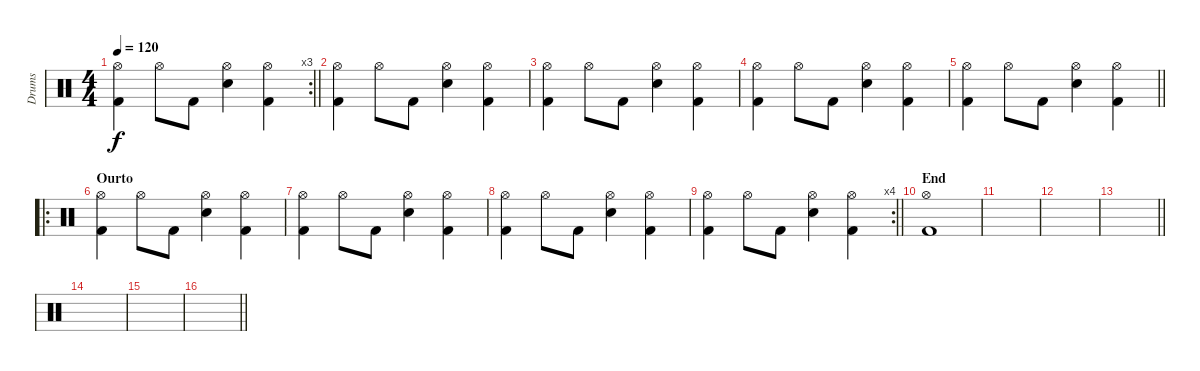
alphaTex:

\track ("Drums" "Drums") {instrument percussion}
\staff {score}
\articulation defaults
\rc 3
\ts (4 4)
\tempo 120
\clef neutral
\barLineRight lightlight
\ks c
("Hi-Hat (open)" "Kick (hit) 2").4{dy f} "Hi-Hat (open)".8 "Kick (hit) 2".8 ("Hi-Hat (open)" "Electric Snare (hit)").4 ("Hi-Hat (open)" "Kick (hit) 2").4 |
("Hi-Hat (open)" "Kick (hit) 2").4 "Hi-Hat (open)".8 "Kick (hit) 2".8 ("Hi-Hat (open)" "Electric Snare (hit)").4 ("Hi-Hat (open)" "Kick (hit) 2").4 |
("Hi-Hat (open)" "Kick (hit) 2").4 "Hi-Hat (open)".8 "Kick (hit) 2".8 ("Hi-Hat (open)" "Electric Snare (hit)").4 ("Hi-Hat (open)" "Kick (hit) 2").4 |
("Hi-Hat (open)" "Kick (hit) 2").4 "Hi-Hat (open)".8 "Kick (hit) 2".8 ("Hi-Hat (open)" "Electric Snare (hit)").4 ("Hi-Hat (open)" "Kick (hit) 2").4 |
\barLineRight lightlight
("Hi-Hat (open)" "Kick (hit) 2").4 "Hi-Hat (open)".8 "Kick (hit) 2".8 ("Hi-Hat (open)" "Electric Snare (hit)").4 ("Hi-Hat (open)" "Kick (hit) 2").4 |
\ro
\section ("" "Ourto")
("Hi-Hat (open)" "Kick (hit) 2").4 "Hi-Hat (open)".8 "Kick (hit) 2".8 ("Hi-Hat (open)" "Electric Snare (hit)").4 ("Hi-Hat (open)" "Kick (hit) 2").4 |
("Hi-Hat (open)" "Kick (hit) 2").4 "Hi-Hat (open)".8 "Kick (hit) 2".8 ("Hi-Hat (open)" "Electric Snare (hit)").4 ("Hi-Hat (open)" "Kick (hit) 2").4 |
("Hi-Hat (open)" "Kick (hit) 2").4 "Hi-Hat (open)".8 "Kick (hit) 2".8 ("Hi-Hat (open)" "Electric Snare (hit)").4 ("Hi-Hat (open)" "Kick (hit) 2").4 |
\rc 4
\barLineRight lightlight
("Hi-Hat (open)" "Kick (hit) 2").4 "Hi-Hat (open)".8 "Kick (hit) 2".8 ("Hi-Hat (open)" "Electric Snare (hit)").4 ("Hi-Hat (open)" "Kick (hit) 2").4 |
\section ("" "End")
("Hi-Hat (open)" "Kick (hit) 2").1 |
|
|
\barLineRight lightlight
|
|
|
\barLineRight lightlight
